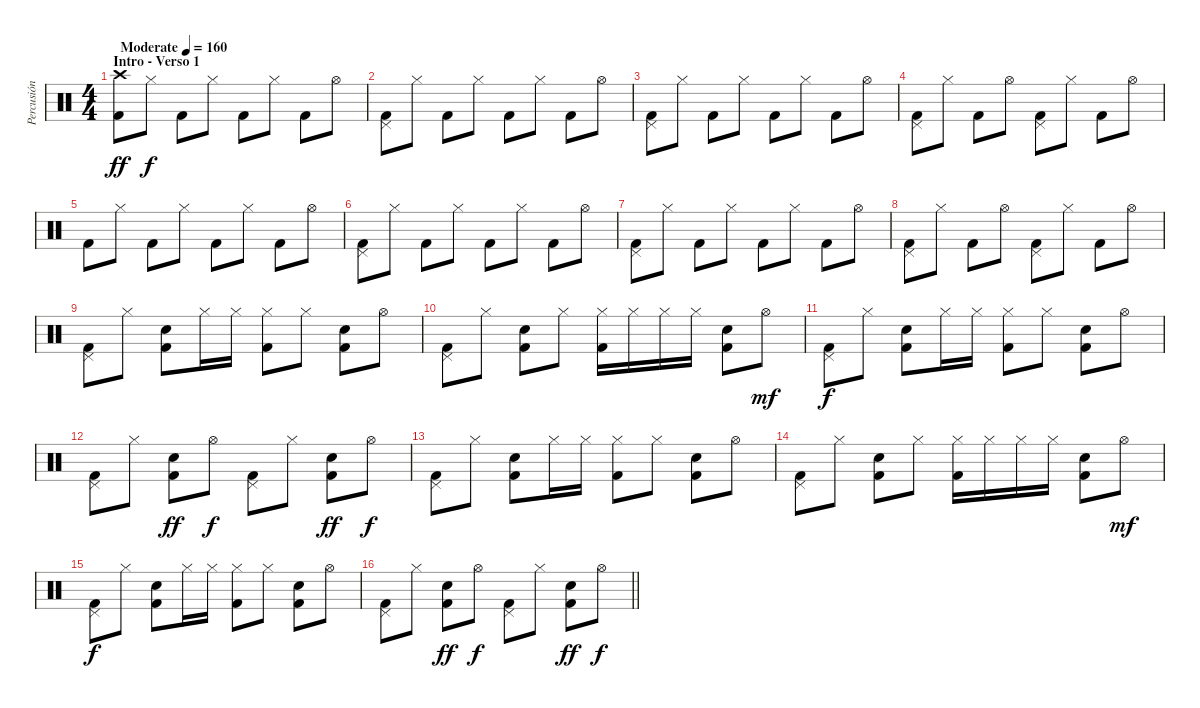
\track ("Percusión" "Percusión") {instrument percussion}
\staff {score}
\articulation defaults
\ts (4 4)
\section ("" "Intro - Verso 1")
\tempo (160 "Moderate")
\clef neutral
\ks c
("Crash high (hit)" "Kick (hit) 2").8{dy ff} "Hi-Hat (closed)".8{dy f} "Kick (hit) 2".8 "Hi-Hat (closed)".8 "Kick (hit) 2".8 "Hi-Hat (closed)".8 "Kick (hit) 2".8 "Hi-Hat (open)".8 |
("Pedal Hi-Hat (hit)" "Kick (hit) 2").8 "Hi-Hat (closed)".8 "Kick (hit) 2".8 "Hi-Hat (closed)".8 "Kick (hit) 2".8 "Hi-Hat (closed)".8 "Kick (hit) 2".8 "Hi-Hat (open)".8 |
("Pedal Hi-Hat (hit)" "Kick (hit) 2").8 "Hi-Hat (closed)".8 "Kick (hit) 2".8 "Hi-Hat (closed)".8 "Kick (hit) 2".8 "Hi-Hat (closed)".8 "Kick (hit) 2".8 "Hi-Hat (open)".8 |
("Pedal Hi-Hat (hit)" "Kick (hit) 2").8 "Hi-Hat (closed)".8 "Kick (hit) 2".8 "Hi-Hat (open)".8 ("Pedal Hi-Hat (hit)" "Kick (hit) 2").8 "Hi-Hat (closed)".8 "Kick (hit) 2".8 "Hi-Hat (open)".8 |
"Kick (hit) 2".8 "Hi-Hat (closed)".8 "Kick (hit) 2".8 "Hi-Hat (closed)".8 "Kick (hit) 2".8 "Hi-Hat (closed)".8 "Kick (hit) 2".8 "Hi-Hat (open)".8 |
("Pedal Hi-Hat (hit)" "Kick (hit) 2").8 "Hi-Hat (closed)".8 "Kick (hit) 2".8 "Hi-Hat (closed)".8 "Kick (hit) 2".8 "Hi-Hat (closed)".8 "Kick (hit) 2".8 "Hi-Hat (open)".8 |
("Pedal Hi-Hat (hit)" "Kick (hit) 2").8 "Hi-Hat (closed)".8 "Kick (hit) 2".8 "Hi-Hat (closed)".8 "Kick (hit) 2".8 "Hi-Hat (closed)".8 "Kick (hit) 2".8 "Hi-Hat (open)".8 |
("Pedal Hi-Hat (hit)" "Kick (hit) 2").8 "Hi-Hat (closed)".8 "Kick (hit) 2".8 "Hi-Hat (open)".8 ("Pedal Hi-Hat (hit)" "Kick (hit) 2").8 "Hi-Hat (closed)".8 "Kick (hit) 2".8 "Hi-Hat (open)".8 |
("Pedal Hi-Hat (hit)" "Kick (hit) 2").8 "Hi-Hat (closed)".8 ("Snare (hit) 2" "Kick (hit) 2").8 "Hi-Hat (closed)".16 "Hi-Hat (closed)".16 ("Hi-Hat (closed)" "Kick (hit) 2").8 "Hi-Hat (closed)".8 ("Snare (hit) 2" "Kick (hit) 2").8 "Hi-Hat (open)".8 |
("Pedal Hi-Hat (hit)" "Kick (hit) 2").8 "Hi-Hat (closed)".8 ("Snare (hit) 2" "Kick (hit) 2").8 "Hi-Hat (closed)".8 ("Hi-Hat (closed)" "Kick (hit) 2").16 "Hi-Hat (closed)".16 "Hi-Hat (closed)".16 "Hi-Hat (closed)".16 ("Snare (hit) 2" "Kick (hit) 2").8 "Hi-Hat (open)".8{dy mf} |
("Pedal Hi-Hat (hit)" "Kick (hit) 2").8{dy f} "Hi-Hat (closed)".8 ("Snare (hit) 2" "Kick (hit) 2").8 "Hi-Hat (closed)".16 "Hi-Hat (closed)".16 ("Hi-Hat (closed)" "Kick (hit) 2").8 "Hi-Hat (closed)".8 ("Snare (hit) 2" "Kick (hit) 2").8 "Hi-Hat (open)".8 |
("Pedal Hi-Hat (hit)" "Kick (hit) 2").8 "Hi-Hat (closed)".8 ("Snare (hit) 2" "Kick (hit) 2").8{dy ff} "Hi-Hat (open)".8{dy f} ("Pedal Hi-Hat (hit)" "Kick (hit) 2").8 "Hi-Hat (closed)".8 ("Snare (hit) 2" "Kick (hit) 2").8{dy ff} "Hi-Hat (open)".8{dy f} |
("Pedal Hi-Hat (hit)" "Kick (hit) 2").8 "Hi-Hat (closed)".8 ("Snare (hit) 2" "Kick (hit) 2").8 "Hi-Hat (closed)".16 "Hi-Hat (closed)".16 ("Hi-Hat (closed)" "Kick (hit) 2").8 "Hi-Hat (closed)".8 ("Snare (hit) 2" "Kick (hit) 2").8 "Hi-Hat (open)".8 |
("Pedal Hi-Hat (hit)" "Kick (hit) 2").8 "Hi-Hat (closed)".8 ("Snare (hit) 2" "Kick (hit) 2").8 "Hi-Hat (closed)".8 ("Hi-Hat (closed)" "Kick (hit) 2").16 "Hi-Hat (closed)".16 "Hi-Hat (closed)".16 "Hi-Hat (closed)".16 ("Snare (hit) 2" "Kick (hit) 2").8 "Hi-Hat (open)".8{dy mf} |
("Pedal Hi-Hat (hit)" "Kick (hit) 2").8{dy f} "Hi-Hat (closed)".8 ("Snare (hit) 2" "Kick (hit) 2").8 "Hi-Hat (closed)".16 "Hi-Hat (closed)".16 ("Hi-Hat (closed)" "Kick (hit) 2").8 "Hi-Hat (closed)".8 ("Snare (hit) 2" "Kick (hit) 2").8 "Hi-Hat (open)".8 |
\barLineRight lightlight
("Pedal Hi-Hat (hit)" "Kick (hit) 2").8 "Hi-Hat (closed)".8 ("Snare (hit) 2" "Kick (hit) 2").8{dy ff} "Hi-Hat (open)".8{dy f} ("Pedal Hi-Hat (hit)" "Kick (hit) 2").8 "Hi-Hat (closed)".8 ("Snare (hit) 2" "Kick (hit) 2").8{dy ff} "Hi-Hat (open)".8{dy f}
